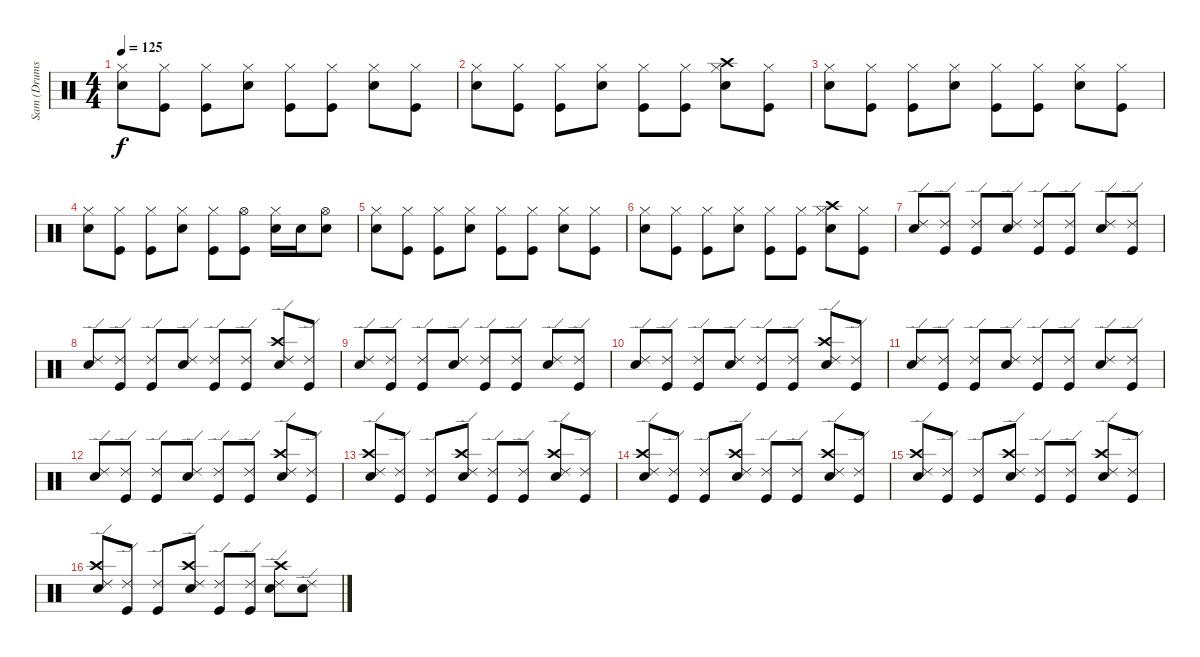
\track ("Sam (Drums)" "Sam (Drums") {instrument percussion}
\staff {score}
\articulation defaults
\ts (4 4)
\tempo 125
\clef neutral
\ks c
("Hi-Hat (closed)" "Snare (hit) 2").8{dy f} ("Hi-Hat (closed)" "Kick (hit)").8 ("Hi-Hat (closed)" "Kick (hit)").8 ("Hi-Hat (closed)" "Snare (hit) 2").8 ("Hi-Hat (closed)" "Kick (hit)").8 ("Hi-Hat (closed)" "Kick (hit)").8 ("Hi-Hat (closed)" "Snare (hit) 2").8 ("Hi-Hat (closed)" "Kick (hit)").8 |
("Hi-Hat (closed)" "Snare (hit) 2").8 ("Hi-Hat (closed)" "Kick (hit)").8 ("Hi-Hat (closed)" "Kick (hit)").8 ("Hi-Hat (closed)" "Snare (hit) 2").8 ("Hi-Hat (closed)" "Kick (hit)").8 ("Hi-Hat (closed)" "Kick (hit)").8 ("Crash high (hit)" "Hi-Hat (closed)" "Snare (hit) 2").8 ("Hi-Hat (closed)" "Kick (hit)").8 |
("Hi-Hat (closed)" "Snare (hit) 2").8 ("Hi-Hat (closed)" "Kick (hit)").8 ("Hi-Hat (closed)" "Kick (hit)").8 ("Hi-Hat (closed)" "Snare (hit) 2").8 ("Hi-Hat (closed)" "Kick (hit)").8 ("Hi-Hat (closed)" "Kick (hit)").8 ("Hi-Hat (closed)" "Snare (hit) 2").8 ("Hi-Hat (closed)" "Kick (hit)").8 |
("Hi-Hat (closed)" "Snare (hit) 2").8 ("Hi-Hat (closed)" "Kick (hit)").8 ("Hi-Hat (closed)" "Kick (hit)").8 ("Hi-Hat (closed)" "Snare (hit) 2").8 ("Hi-Hat (closed)" "Kick (hit)").8 ("Hi-Hat (open)" "Kick (hit)").8 ("Hi-Hat (closed)" "Snare (hit) 2").16 "Snare (hit) 2".16 ("Hi-Hat (open)" "Snare (hit) 2").8 |
("Hi-Hat (closed)" "Snare (hit) 2").8 ("Hi-Hat (closed)" "Kick (hit)").8 ("Hi-Hat (closed)" "Kick (hit)").8 ("Hi-Hat (closed)" "Snare (hit) 2").8 ("Hi-Hat (closed)" "Kick (hit)").8 ("Hi-Hat (closed)" "Kick (hit)").8 ("Hi-Hat (closed)" "Snare (hit) 2").8 ("Hi-Hat (closed)" "Kick (hit)").8 |
("Hi-Hat (closed)" "Snare (hit) 2").8 ("Hi-Hat (closed)" "Kick (hit)").8 ("Hi-Hat (closed)" "Kick (hit)").8 ("Hi-Hat (closed)" "Snare (hit) 2").8 ("Hi-Hat (closed)" "Kick (hit)").8 ("Hi-Hat (closed)" "Kick (hit)").8 ("Crash high (hit)" "Hi-Hat (closed)" "Snare (hit) 2").8 ("Hi-Hat (closed)" "Kick (hit)").8 |
("Ride (edge) 2" "Snare (hit) 2").8 ("Ride (edge) 2" "Kick (hit)").8 ("Ride (edge) 2" "Kick (hit)").8 ("Ride (edge) 2" "Snare (hit) 2").8 ("Ride (edge) 2" "Kick (hit)").8 ("Ride (edge) 2" "Kick (hit)").8 ("Ride (edge) 2" "Snare (hit) 2").8 ("Ride (edge) 2" "Kick (hit)").8 |
("Ride (edge) 2" "Snare (hit) 2").8 ("Ride (edge) 2" "Kick (hit)").8 ("Ride (edge) 2" "Kick (hit)").8 ("Ride (edge) 2" "Snare (hit) 2").8 ("Ride (edge) 2" "Kick (hit)").8 ("Ride (edge) 2" "Kick (hit)").8 ("Crash high (hit)" "Ride (edge) 2" "Snare (hit) 2").8 ("Ride (edge) 2" "Kick (hit)").8 |
("Ride (edge) 2" "Snare (hit) 2").8 ("Ride (edge) 2" "Kick (hit)").8 ("Ride (edge) 2" "Kick (hit)").8 ("Ride (edge) 2" "Snare (hit) 2").8 ("Ride (edge) 2" "Kick (hit)").8 ("Ride (edge) 2" "Kick (hit)").8 ("Ride (edge) 2" "Snare (hit) 2").8 ("Ride (edge) 2" "Kick (hit)").8 |
("Ride (edge) 2" "Snare (hit) 2").8 ("Ride (edge) 2" "Kick (hit)").8 ("Ride (edge) 2" "Kick (hit)").8 ("Ride (edge) 2" "Snare (hit) 2").8 ("Ride (edge) 2" "Kick (hit)").8 ("Ride (edge) 2" "Kick (hit)").8 ("Crash high (hit)" "Ride (edge) 2" "Snare (hit) 2").8 ("Ride (edge) 2" "Kick (hit)").8 |
("Ride (edge) 2" "Snare (hit) 2").8 ("Ride (edge) 2" "Kick (hit)").8 ("Ride (edge) 2" "Kick (hit)").8 ("Ride (edge) 2" "Snare (hit) 2").8 ("Ride (edge) 2" "Kick (hit)").8 ("Ride (edge) 2" "Kick (hit)").8 ("Ride (edge) 2" "Snare (hit) 2").8 ("Ride (edge) 2" "Kick (hit)").8 |
("Ride (edge) 2" "Snare (hit) 2").8 ("Ride (edge) 2" "Kick (hit)").8 ("Ride (edge) 2" "Kick (hit)").8 ("Ride (edge) 2" "Snare (hit) 2").8 ("Ride (edge) 2" "Kick (hit)").8 ("Ride (edge) 2" "Kick (hit)").8 ("Crash high (hit)" "Ride (edge) 2" "Snare (hit) 2").8 ("Ride (edge) 2" "Kick (hit)").8 |
("Crash high (hit)" "Ride (edge) 2" "Snare (hit) 2").8 ("Ride (edge) 2" "Kick (hit)").8 ("Ride (edge) 2" "Kick (hit)").8 ("Crash high (hit)" "Ride (edge) 2" "Snare (hit) 2").8 ("Ride (edge) 2" "Kick (hit)").8 ("Ride (edge) 2" "Kick (hit)").8 ("Crash high (hit)" "Ride (edge) 2" "Snare (hit) 2").8 ("Ride (edge) 2" "Kick (hit)").8 |
("Crash high (hit)" "Ride (edge) 2" "Snare (hit) 2").8 ("Ride (edge) 2" "Kick (hit)").8 ("Ride (edge) 2" "Kick (hit)").8 ("Crash high (hit)" "Ride (edge) 2" "Snare (hit) 2").8 ("Ride (edge) 2" "Kick (hit)").8 ("Ride (edge) 2" "Kick (hit)").8 ("Crash high (hit)" "Ride (edge) 2" "Snare (hit) 2").8 ("Ride (edge) 2" "Kick (hit)").8 |
("Crash high (hit)" "Ride (edge) 2" "Snare (hit) 2").8 ("Ride (edge) 2" "Kick (hit)").8 ("Ride (edge) 2" "Kick (hit)").8 ("Crash high (hit)" "Ride (edge) 2" "Snare (hit) 2").8 ("Ride (edge) 2" "Kick (hit)").8 ("Ride (edge) 2" "Kick (hit)").8 ("Crash high (hit)" "Ride (edge) 2" "Snare (hit) 2").8 ("Ride (edge) 2" "Kick (hit)").8 |
("Crash high (hit)" "Ride (edge) 2" "Snare (hit) 2").8 ("Ride (edge) 2" "Kick (hit)").8 ("Ride (edge) 2" "Kick (hit)").8 ("Crash high (hit)" "Ride (edge) 2" "Snare (hit) 2").8 ("Ride (edge) 2" "Kick (hit)").8 ("Ride (edge) 2" "Kick (hit)").8 ("Crash high (hit)" "Ride (edge) 2" "Snare (hit) 2").8 ("Ride (edge) 2" "Snare (hit) 2").8
